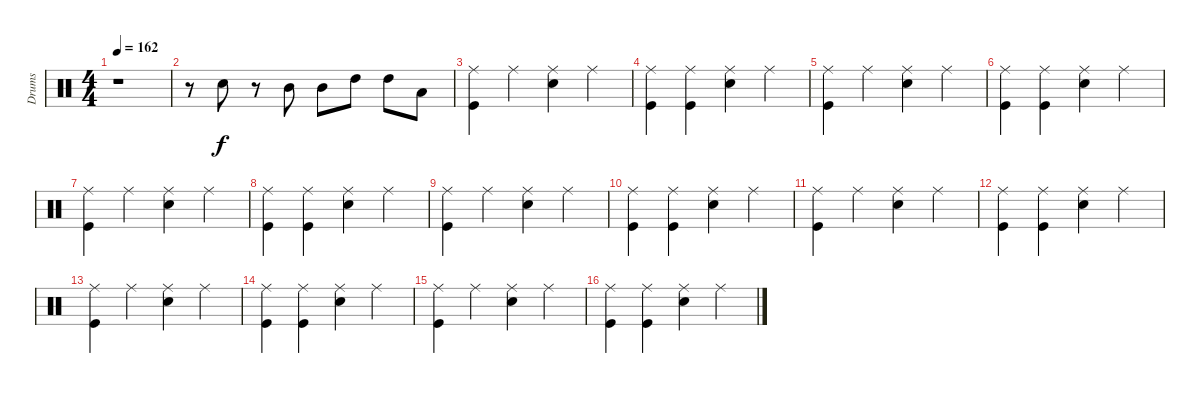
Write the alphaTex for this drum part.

\track ("Drums" "Drums") {instrument percussion}
\staff {score}
\articulation defaults
\ts (4 4)
\tempo 162
\clef neutral
\ks c
r.1{dy f} |
r.8 "Snare (hit) 2".8 r.8 "Mid Tom (hit)".8 "Mid Tom (hit)".8 "High Tom (hit)".8 "High Tom (hit)".8 "Low Tom (hit)".8 |
("Ride (middle)" "Kick (hit)").4 "Ride (middle)".4 ("Ride (middle)" "Snare (hit) 2").4 "Ride (middle)".4 |
("Ride (middle)" "Kick (hit)").4 ("Ride (middle)" "Kick (hit)").4 ("Ride (middle)" "Snare (hit) 2").4 "Ride (middle)".4 |
("Ride (middle)" "Kick (hit)").4 "Ride (middle)".4 ("Ride (middle)" "Snare (hit) 2").4 "Ride (middle)".4 |
("Ride (middle)" "Kick (hit)").4 ("Ride (middle)" "Kick (hit)").4 ("Ride (middle)" "Snare (hit) 2").4 "Ride (middle)".4 |
("Ride (middle)" "Kick (hit)").4 "Ride (middle)".4 ("Ride (middle)" "Snare (hit) 2").4 "Ride (middle)".4 |
("Ride (middle)" "Kick (hit)").4 ("Ride (middle)" "Kick (hit)").4 ("Ride (middle)" "Snare (hit) 2").4 "Ride (middle)".4 |
("Ride (middle)" "Kick (hit)").4 "Ride (middle)".4 ("Ride (middle)" "Snare (hit) 2").4 "Ride (middle)".4 |
("Ride (middle)" "Kick (hit)").4 ("Ride (middle)" "Kick (hit)").4 ("Ride (middle)" "Snare (hit) 2").4 "Ride (middle)".4 |
("Ride (middle)" "Kick (hit)").4 "Ride (middle)".4 ("Ride (middle)" "Snare (hit) 2").4 "Ride (middle)".4 |
("Ride (middle)" "Kick (hit)").4 ("Ride (middle)" "Kick (hit)").4 ("Ride (middle)" "Snare (hit) 2").4 "Ride (middle)".4 |
("Ride (middle)" "Kick (hit)").4 "Ride (middle)".4 ("Ride (middle)" "Snare (hit) 2").4 "Ride (middle)".4 |
("Ride (middle)" "Kick (hit)").4 ("Ride (middle)" "Kick (hit)").4 ("Ride (middle)" "Snare (hit) 2").4 "Ride (middle)".4 |
("Ride (middle)" "Kick (hit)").4 "Ride (middle)".4 ("Ride (middle)" "Snare (hit) 2").4 "Ride (middle)".4 |
("Ride (middle)" "Kick (hit)").4 ("Ride (middle)" "Kick (hit)").4 ("Ride (middle)" "Snare (hit) 2").4 "Ride (middle)".4
